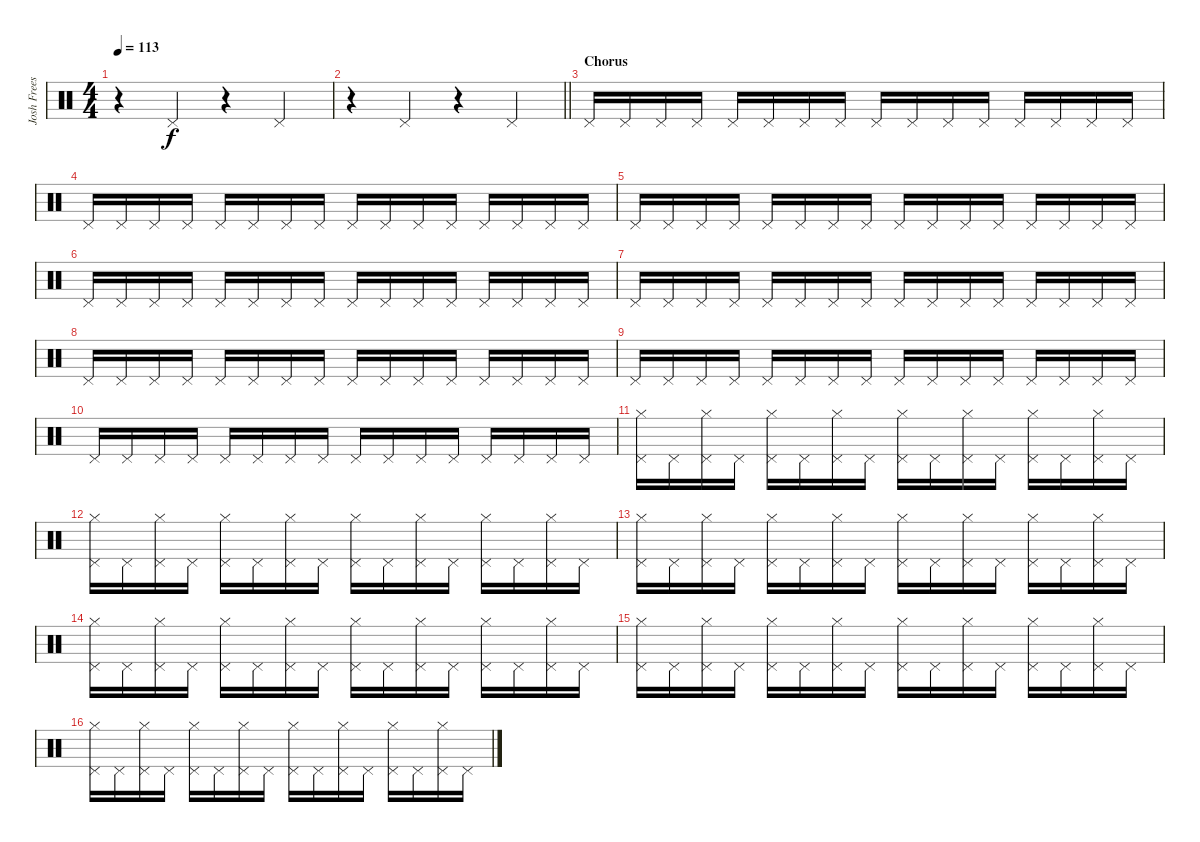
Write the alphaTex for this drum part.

\track ("Josh Freese (Studio Drummer)" "Josh Frees") {instrument percussion}
\staff {score}
\articulation defaults
\ts (4 4)
\tempo 113
\clef neutral
\ks c
r.4{dy f} "Pedal Hi-Hat (hit)".4 r.4 "Pedal Hi-Hat (hit)".4 |
\barLineRight lightlight
r.4 "Pedal Hi-Hat (hit)".4 r.4 "Pedal Hi-Hat (hit)".4 |
\section ("" "Chorus")
"Pedal Hi-Hat (hit)".16 "Pedal Hi-Hat (hit)".16 "Pedal Hi-Hat (hit)".16 "Pedal Hi-Hat (hit)".16 "Pedal Hi-Hat (hit)".16 "Pedal Hi-Hat (hit)".16 "Pedal Hi-Hat (hit)".16 "Pedal Hi-Hat (hit)".16 "Pedal Hi-Hat (hit)".16 "Pedal Hi-Hat (hit)".16 "Pedal Hi-Hat (hit)".16 "Pedal Hi-Hat (hit)".16 "Pedal Hi-Hat (hit)".16 "Pedal Hi-Hat (hit)".16 "Pedal Hi-Hat (hit)".16 "Pedal Hi-Hat (hit)".16 |
"Pedal Hi-Hat (hit)".16 "Pedal Hi-Hat (hit)".16 "Pedal Hi-Hat (hit)".16 "Pedal Hi-Hat (hit)".16 "Pedal Hi-Hat (hit)".16 "Pedal Hi-Hat (hit)".16 "Pedal Hi-Hat (hit)".16 "Pedal Hi-Hat (hit)".16 "Pedal Hi-Hat (hit)".16 "Pedal Hi-Hat (hit)".16 "Pedal Hi-Hat (hit)".16 "Pedal Hi-Hat (hit)".16 "Pedal Hi-Hat (hit)".16 "Pedal Hi-Hat (hit)".16 "Pedal Hi-Hat (hit)".16 "Pedal Hi-Hat (hit)".16 |
"Pedal Hi-Hat (hit)".16 "Pedal Hi-Hat (hit)".16 "Pedal Hi-Hat (hit)".16 "Pedal Hi-Hat (hit)".16 "Pedal Hi-Hat (hit)".16 "Pedal Hi-Hat (hit)".16 "Pedal Hi-Hat (hit)".16 "Pedal Hi-Hat (hit)".16 "Pedal Hi-Hat (hit)".16 "Pedal Hi-Hat (hit)".16 "Pedal Hi-Hat (hit)".16 "Pedal Hi-Hat (hit)".16 "Pedal Hi-Hat (hit)".16 "Pedal Hi-Hat (hit)".16 "Pedal Hi-Hat (hit)".16 "Pedal Hi-Hat (hit)".16 |
"Pedal Hi-Hat (hit)".16 "Pedal Hi-Hat (hit)".16 "Pedal Hi-Hat (hit)".16 "Pedal Hi-Hat (hit)".16 "Pedal Hi-Hat (hit)".16 "Pedal Hi-Hat (hit)".16 "Pedal Hi-Hat (hit)".16 "Pedal Hi-Hat (hit)".16 "Pedal Hi-Hat (hit)".16 "Pedal Hi-Hat (hit)".16 "Pedal Hi-Hat (hit)".16 "Pedal Hi-Hat (hit)".16 "Pedal Hi-Hat (hit)".16 "Pedal Hi-Hat (hit)".16 "Pedal Hi-Hat (hit)".16 "Pedal Hi-Hat (hit)".16 |
"Pedal Hi-Hat (hit)".16 "Pedal Hi-Hat (hit)".16 "Pedal Hi-Hat (hit)".16 "Pedal Hi-Hat (hit)".16 "Pedal Hi-Hat (hit)".16 "Pedal Hi-Hat (hit)".16 "Pedal Hi-Hat (hit)".16 "Pedal Hi-Hat (hit)".16 "Pedal Hi-Hat (hit)".16 "Pedal Hi-Hat (hit)".16 "Pedal Hi-Hat (hit)".16 "Pedal Hi-Hat (hit)".16 "Pedal Hi-Hat (hit)".16 "Pedal Hi-Hat (hit)".16 "Pedal Hi-Hat (hit)".16 "Pedal Hi-Hat (hit)".16 |
"Pedal Hi-Hat (hit)".16 "Pedal Hi-Hat (hit)".16 "Pedal Hi-Hat (hit)".16 "Pedal Hi-Hat (hit)".16 "Pedal Hi-Hat (hit)".16 "Pedal Hi-Hat (hit)".16 "Pedal Hi-Hat (hit)".16 "Pedal Hi-Hat (hit)".16 "Pedal Hi-Hat (hit)".16 "Pedal Hi-Hat (hit)".16 "Pedal Hi-Hat (hit)".16 "Pedal Hi-Hat (hit)".16 "Pedal Hi-Hat (hit)".16 "Pedal Hi-Hat (hit)".16 "Pedal Hi-Hat (hit)".16 "Pedal Hi-Hat (hit)".16 |
"Pedal Hi-Hat (hit)".16 "Pedal Hi-Hat (hit)".16 "Pedal Hi-Hat (hit)".16 "Pedal Hi-Hat (hit)".16 "Pedal Hi-Hat (hit)".16 "Pedal Hi-Hat (hit)".16 "Pedal Hi-Hat (hit)".16 "Pedal Hi-Hat (hit)".16 "Pedal Hi-Hat (hit)".16 "Pedal Hi-Hat (hit)".16 "Pedal Hi-Hat (hit)".16 "Pedal Hi-Hat (hit)".16 "Pedal Hi-Hat (hit)".16 "Pedal Hi-Hat (hit)".16 "Pedal Hi-Hat (hit)".16 "Pedal Hi-Hat (hit)".16 |
"Pedal Hi-Hat (hit)".16 "Pedal Hi-Hat (hit)".16 "Pedal Hi-Hat (hit)".16 "Pedal Hi-Hat (hit)".16 "Pedal Hi-Hat (hit)".16 "Pedal Hi-Hat (hit)".16 "Pedal Hi-Hat (hit)".16 "Pedal Hi-Hat (hit)".16 "Pedal Hi-Hat (hit)".16 "Pedal Hi-Hat (hit)".16 "Pedal Hi-Hat (hit)".16 "Pedal Hi-Hat (hit)".16 "Pedal Hi-Hat (hit)".16 "Pedal Hi-Hat (hit)".16 "Pedal Hi-Hat (hit)".16 "Pedal Hi-Hat (hit)".16 |
("Pedal Hi-Hat (hit)" "Hi-Hat (closed)").16 "Pedal Hi-Hat (hit)".16 ("Pedal Hi-Hat (hit)" "Hi-Hat (closed)").16 "Pedal Hi-Hat (hit)".16 ("Pedal Hi-Hat (hit)" "Hi-Hat (closed)").16 "Pedal Hi-Hat (hit)".16 ("Pedal Hi-Hat (hit)" "Hi-Hat (closed)").16 "Pedal Hi-Hat (hit)".16 ("Pedal Hi-Hat (hit)" "Hi-Hat (closed)").16 "Pedal Hi-Hat (hit)".16 ("Pedal Hi-Hat (hit)" "Hi-Hat (closed)").16 "Pedal Hi-Hat (hit)".16 ("Pedal Hi-Hat (hit)" "Hi-Hat (closed)").16 "Pedal Hi-Hat (hit)".16 ("Pedal Hi-Hat (hit)" "Hi-Hat (closed)").16 "Pedal Hi-Hat (hit)".16 |
("Pedal Hi-Hat (hit)" "Hi-Hat (closed)").16 "Pedal Hi-Hat (hit)".16 ("Pedal Hi-Hat (hit)" "Hi-Hat (closed)").16 "Pedal Hi-Hat (hit)".16 ("Pedal Hi-Hat (hit)" "Hi-Hat (closed)").16 "Pedal Hi-Hat (hit)".16 ("Pedal Hi-Hat (hit)" "Hi-Hat (closed)").16 "Pedal Hi-Hat (hit)".16 ("Pedal Hi-Hat (hit)" "Hi-Hat (closed)").16 "Pedal Hi-Hat (hit)".16 ("Pedal Hi-Hat (hit)" "Hi-Hat (closed)").16 "Pedal Hi-Hat (hit)".16 ("Pedal Hi-Hat (hit)" "Hi-Hat (closed)").16 "Pedal Hi-Hat (hit)".16 ("Pedal Hi-Hat (hit)" "Hi-Hat (closed)").16 "Pedal Hi-Hat (hit)".16 |
("Pedal Hi-Hat (hit)" "Hi-Hat (closed)").16 "Pedal Hi-Hat (hit)".16 ("Pedal Hi-Hat (hit)" "Hi-Hat (closed)").16 "Pedal Hi-Hat (hit)".16 ("Pedal Hi-Hat (hit)" "Hi-Hat (closed)").16 "Pedal Hi-Hat (hit)".16 ("Pedal Hi-Hat (hit)" "Hi-Hat (closed)").16 "Pedal Hi-Hat (hit)".16 ("Pedal Hi-Hat (hit)" "Hi-Hat (closed)").16 "Pedal Hi-Hat (hit)".16 ("Pedal Hi-Hat (hit)" "Hi-Hat (closed)").16 "Pedal Hi-Hat (hit)".16 ("Pedal Hi-Hat (hit)" "Hi-Hat (closed)").16 "Pedal Hi-Hat (hit)".16 ("Pedal Hi-Hat (hit)" "Hi-Hat (closed)").16 "Pedal Hi-Hat (hit)".16 |
("Pedal Hi-Hat (hit)" "Hi-Hat (closed)").16 "Pedal Hi-Hat (hit)".16 ("Pedal Hi-Hat (hit)" "Hi-Hat (closed)").16 "Pedal Hi-Hat (hit)".16 ("Pedal Hi-Hat (hit)" "Hi-Hat (closed)").16 "Pedal Hi-Hat (hit)".16 ("Pedal Hi-Hat (hit)" "Hi-Hat (closed)").16 "Pedal Hi-Hat (hit)".16 ("Pedal Hi-Hat (hit)" "Hi-Hat (closed)").16 "Pedal Hi-Hat (hit)".16 ("Pedal Hi-Hat (hit)" "Hi-Hat (closed)").16 "Pedal Hi-Hat (hit)".16 ("Pedal Hi-Hat (hit)" "Hi-Hat (closed)").16 "Pedal Hi-Hat (hit)".16 ("Pedal Hi-Hat (hit)" "Hi-Hat (closed)").16 "Pedal Hi-Hat (hit)".16 |
("Pedal Hi-Hat (hit)" "Hi-Hat (closed)").16 "Pedal Hi-Hat (hit)".16 ("Pedal Hi-Hat (hit)" "Hi-Hat (closed)").16 "Pedal Hi-Hat (hit)".16 ("Pedal Hi-Hat (hit)" "Hi-Hat (closed)").16 "Pedal Hi-Hat (hit)".16 ("Pedal Hi-Hat (hit)" "Hi-Hat (closed)").16 "Pedal Hi-Hat (hit)".16 ("Pedal Hi-Hat (hit)" "Hi-Hat (closed)").16 "Pedal Hi-Hat (hit)".16 ("Pedal Hi-Hat (hit)" "Hi-Hat (closed)").16 "Pedal Hi-Hat (hit)".16 ("Pedal Hi-Hat (hit)" "Hi-Hat (closed)").16 "Pedal Hi-Hat (hit)".16 ("Pedal Hi-Hat (hit)" "Hi-Hat (closed)").16 "Pedal Hi-Hat (hit)".16 |
("Pedal Hi-Hat (hit)" "Hi-Hat (closed)").16 "Pedal Hi-Hat (hit)".16 ("Pedal Hi-Hat (hit)" "Hi-Hat (closed)").16 "Pedal Hi-Hat (hit)".16 ("Pedal Hi-Hat (hit)" "Hi-Hat (closed)").16 "Pedal Hi-Hat (hit)".16 ("Pedal Hi-Hat (hit)" "Hi-Hat (closed)").16 "Pedal Hi-Hat (hit)".16 ("Pedal Hi-Hat (hit)" "Hi-Hat (closed)").16 "Pedal Hi-Hat (hit)".16 ("Pedal Hi-Hat (hit)" "Hi-Hat (closed)").16 "Pedal Hi-Hat (hit)".16 ("Pedal Hi-Hat (hit)" "Hi-Hat (closed)").16 "Pedal Hi-Hat (hit)".16 ("Pedal Hi-Hat (hit)" "Hi-Hat (closed)").16 "Pedal Hi-Hat (hit)".16
